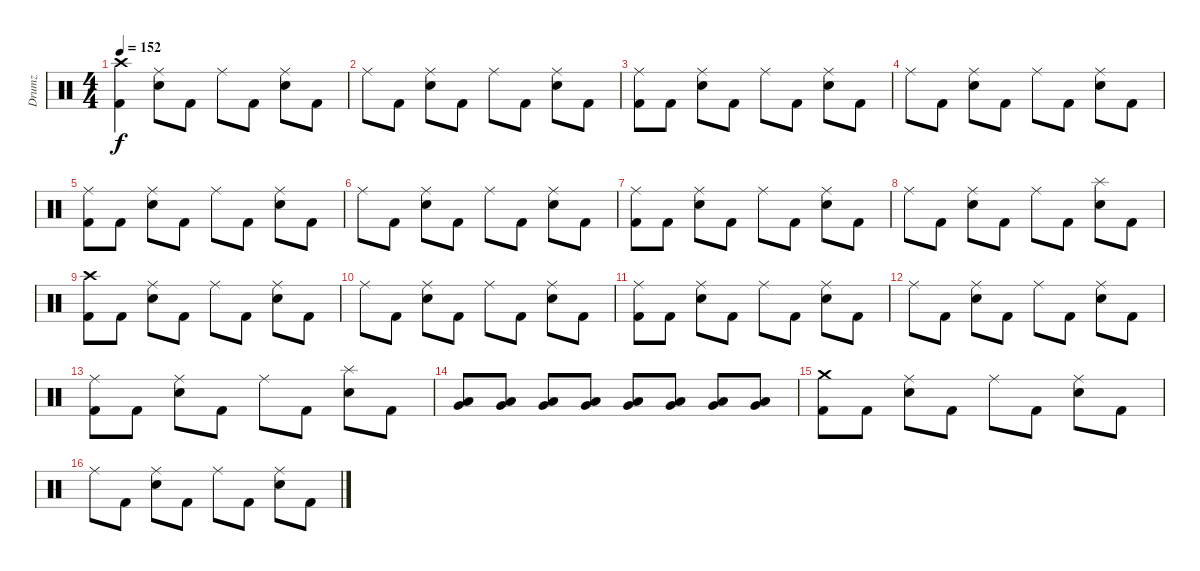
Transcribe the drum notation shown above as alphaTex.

\track ("Drumz" "Drumz") {instrument percussion}
\staff {score}
\articulation defaults
\ts (4 4)
\tempo 152
\clef neutral
\ks c
("Kick (hit) 2" "Crash high (hit)").4{dy f} ("Snare (hit) 2" "Ride (middle)").8 "Kick (hit) 2".8 "Ride (middle)".8 "Kick (hit) 2".8 ("Snare (hit) 2" "Ride (middle)").8 "Kick (hit) 2".8 |
"Ride (middle)".8 "Kick (hit) 2".8 ("Snare (hit) 2" "Ride (middle)").8 "Kick (hit) 2".8 "Ride (middle)".8 "Kick (hit) 2".8 ("Snare (hit) 2" "Ride (middle)").8 "Kick (hit) 2".8 |
("Kick (hit) 2" "Ride (middle)").8 "Kick (hit) 2".8 ("Snare (hit) 2" "Ride (middle)").8 "Kick (hit) 2".8 "Ride (middle)".8 "Kick (hit) 2".8 ("Snare (hit) 2" "Ride (middle)").8 "Kick (hit) 2".8 |
"Ride (middle)".8 "Kick (hit) 2".8 ("Snare (hit) 2" "Ride (middle)").8 "Kick (hit) 2".8 "Ride (middle)".8 "Kick (hit) 2".8 ("Snare (hit) 2" "Ride (middle)").8 "Kick (hit) 2".8 |
("Kick (hit) 2" "Ride (middle)").8 "Kick (hit) 2".8 ("Snare (hit) 2" "Ride (middle)").8 "Kick (hit) 2".8 "Ride (middle)".8 "Kick (hit) 2".8 ("Snare (hit) 2" "Ride (middle)").8 "Kick (hit) 2".8 |
"Ride (middle)".8 "Kick (hit) 2".8 ("Snare (hit) 2" "Ride (middle)").8 "Kick (hit) 2".8 "Ride (middle)".8 "Kick (hit) 2".8 ("Snare (hit) 2" "Ride (middle)").8 "Kick (hit) 2".8 |
("Kick (hit) 2" "Ride (middle)").8 "Kick (hit) 2".8 ("Snare (hit) 2" "Ride (middle)").8 "Kick (hit) 2".8 "Ride (middle)".8 "Kick (hit) 2".8 ("Snare (hit) 2" "Ride (middle)").8 "Kick (hit) 2".8 |
"Ride (middle)".8 "Kick (hit) 2".8 ("Snare (hit) 2" "Ride (middle)").8 "Kick (hit) 2".8 "Ride (middle)".8 "Kick (hit) 2".8 ("Snare (hit) 2" "Splash (hit)").8 "Kick (hit) 2".8 |
("Kick (hit) 2" "Crash high (hit)").8 "Kick (hit) 2".8 ("Snare (hit) 2" "Ride (middle)").8 "Kick (hit) 2".8 "Ride (middle)".8 "Kick (hit) 2".8 ("Snare (hit) 2" "Ride (middle)").8 "Kick (hit) 2".8 |
"Ride (middle)".8 "Kick (hit) 2".8 ("Snare (hit) 2" "Ride (middle)").8 "Kick (hit) 2".8 "Ride (middle)".8 "Kick (hit) 2".8 ("Snare (hit) 2" "Ride (middle)").8 "Kick (hit) 2".8 |
("Kick (hit) 2" "Ride (middle)").8 "Kick (hit) 2".8 ("Snare (hit) 2" "Ride (middle)").8 "Kick (hit) 2".8 "Ride (middle)".8 "Kick (hit) 2".8 ("Snare (hit) 2" "Ride (middle)").8 "Kick (hit) 2".8 |
"Ride (middle)".8 "Kick (hit) 2".8 ("Snare (hit) 2" "Ride (middle)").8 "Kick (hit) 2".8 "Ride (middle)".8 "Kick (hit) 2".8 ("Snare (hit) 2" "Ride (middle)").8 "Kick (hit) 2".8 |
("Kick (hit) 2" "Ride (middle)").8 "Kick (hit) 2".8 ("Snare (hit) 2" "Ride (middle)").8 "Kick (hit) 2".8 "Ride (middle)".8 "Kick (hit) 2".8 ("Snare (hit) 2" "Splash (hit)").8 "Kick (hit) 2".8 |
("Low Tom (hit)" "Very Low Tom (hit)").8 ("Low Tom (hit)" "Very Low Tom (hit)").8 ("Low Tom (hit)" "Very Low Tom (hit)").8 ("Low Tom (hit)" "Very Low Tom (hit)").8 ("Low Tom (hit)" "Very Low Tom (hit)").8 ("Low Tom (hit)" "Very Low Tom (hit)").8 ("Low Tom (hit)" "Very Low Tom (hit)").8 ("Low Tom (hit)" "Very Low Tom (hit)").8 |
("Kick (hit) 2" "Crash medium (hit)").8 "Kick (hit) 2".8 ("Snare (hit) 2" "Ride (middle)").8 "Kick (hit) 2".8 "Ride (middle)".8 "Kick (hit) 2".8 ("Snare (hit) 2" "Ride (middle)").8 "Kick (hit) 2".8 |
"Ride (middle)".8 "Kick (hit) 2".8 ("Snare (hit) 2" "Ride (middle)").8 "Kick (hit) 2".8 "Ride (middle)".8 "Kick (hit) 2".8 ("Snare (hit) 2" "Ride (middle)").8 "Kick (hit) 2".8
